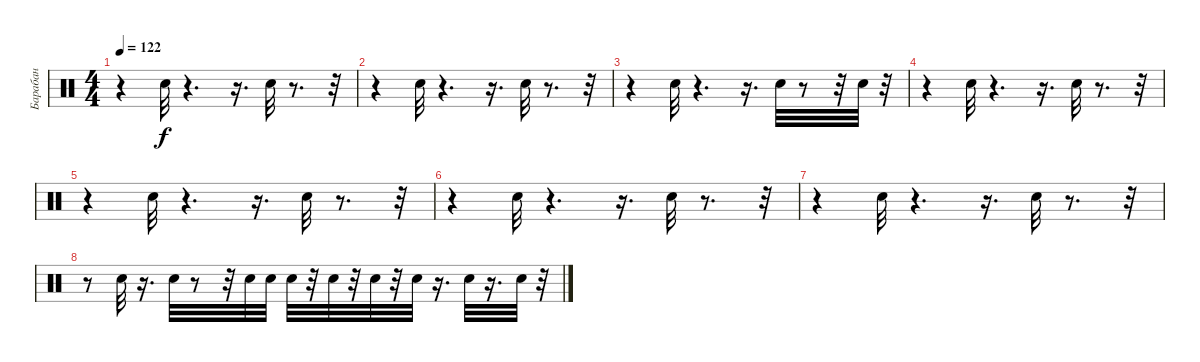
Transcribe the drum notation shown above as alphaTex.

\track ("Барабан" "Барабан") {instrument percussion}
\staff {score}
\articulation defaults
\ts (4 4)
\tempo 122
\clef neutral
\ks c
r.4{dy f} "Snare (hit) 2".32{volume 16} r.4{d} r.16{d} "Snare (hit) 2".32{volume 14} r.8{d} r.32 |
r.4 "Snare (hit) 2".32{volume 14} r.4{d} r.16{d} "Snare (hit) 2".32{volume 12} r.8{d} r.32 |
r.4 "Snare (hit) 2".32{volume 12} r.4{d} r.16{d} "Snare (hit) 2".32{volume 10} r.8 r.32 "Snare (hit) 2".32{volume 10} r.32 |
r.4 "Snare (hit) 2".32{volume 10} r.4{d} r.16{d} "Snare (hit) 2".32{volume 8} r.8{d} r.32 |
r.4 "Snare (hit) 2".32{volume 8} r.4{d} r.16{d} "Snare (hit) 2".32{volume 6} r.8{d} r.32 |
r.4 "Snare (hit) 2".32{volume 6} r.4{d} r.16{d} "Snare (hit) 2".32{volume 4} r.8{d} r.32 |
r.4 "Snare (hit) 2".32{volume 4} r.4{d} r.16{d} "Snare (hit) 2".32{volume 2} r.8{d} r.32 |
r.8 "Snare (hit) 2".32{volume 2} r.16{d} "Snare (hit) 2".32{volume 2} r.8 r.32 "Snare (hit) 2".32{volume 1} "Snare (hit) 2".32 "Snare (hit) 2".32{volume 1} r.32 "Snare (hit) 2".32{volume 1} r.32 "Snare (hit) 2".32{volume 1} r.32 "Snare (hit) 2".32{volume 1} r.16{d} "Snare (hit) 2".32{volume 0} r.16{d} "Snare (hit) 2".32{volume 0} r.32
